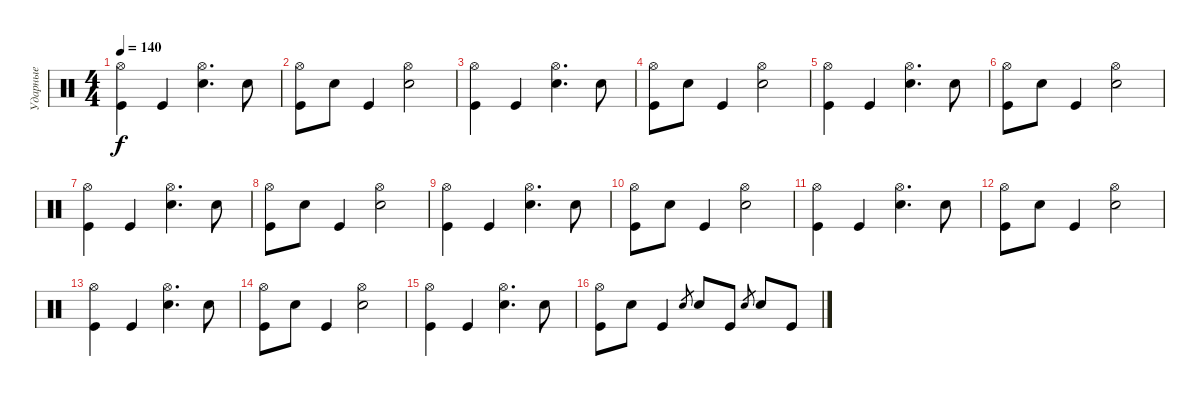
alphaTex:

\track ("Ударные" "Ударные") {instrument percussion}
\staff {score}
\articulation defaults
\ts (4 4)
\tempo 140
\clef neutral
\ks c
("Kick (hit)" "Hi-Hat (open)").4{dy f} "Kick (hit)".4 ("Snare (hit) 2" "Hi-Hat (open)").4{d} "Snare (hit) 2".8 |
("Kick (hit)" "Hi-Hat (open)").8 "Snare (hit) 2".8 "Kick (hit)".4 ("Hi-Hat (open)" "Snare (hit) 2").2 |
("Kick (hit)" "Hi-Hat (open)").4 "Kick (hit)".4 ("Snare (hit) 2" "Hi-Hat (open)").4{d} "Snare (hit) 2".8 |
("Kick (hit)" "Hi-Hat (open)").8 "Snare (hit) 2".8 "Kick (hit)".4 ("Hi-Hat (open)" "Snare (hit) 2").2 |
("Kick (hit)" "Hi-Hat (open)").4 "Kick (hit)".4 ("Snare (hit) 2" "Hi-Hat (open)").4{d} "Snare (hit) 2".8 |
("Kick (hit)" "Hi-Hat (open)").8 "Snare (hit) 2".8 "Kick (hit)".4 ("Hi-Hat (open)" "Snare (hit) 2").2 |
("Kick (hit)" "Hi-Hat (open)").4 "Kick (hit)".4 ("Snare (hit) 2" "Hi-Hat (open)").4{d} "Snare (hit) 2".8 |
("Kick (hit)" "Hi-Hat (open)").8 "Snare (hit) 2".8 "Kick (hit)".4 ("Hi-Hat (open)" "Snare (hit) 2").2 |
("Kick (hit)" "Hi-Hat (open)").4 "Kick (hit)".4 ("Snare (hit) 2" "Hi-Hat (open)").4{d} "Snare (hit) 2".8 |
("Kick (hit)" "Hi-Hat (open)").8 "Snare (hit) 2".8 "Kick (hit)".4 ("Hi-Hat (open)" "Snare (hit) 2").2 |
("Kick (hit)" "Hi-Hat (open)").4 "Kick (hit)".4 ("Snare (hit) 2" "Hi-Hat (open)").4{d} "Snare (hit) 2".8 |
("Kick (hit)" "Hi-Hat (open)").8 "Snare (hit) 2".8 "Kick (hit)".4 ("Hi-Hat (open)" "Snare (hit) 2").2 |
("Kick (hit)" "Hi-Hat (open)").4 "Kick (hit)".4 ("Snare (hit) 2" "Hi-Hat (open)").4{d} "Snare (hit) 2".8 |
("Kick (hit)" "Hi-Hat (open)").8 "Snare (hit) 2".8 "Kick (hit)".4 ("Hi-Hat (open)" "Snare (hit) 2").2 |
("Kick (hit)" "Hi-Hat (open)").4 "Kick (hit)".4 ("Snare (hit) 2" "Hi-Hat (open)").4{d} "Snare (hit) 2".8 |
("Kick (hit)" "Hi-Hat (open)").8 "Snare (hit) 2".8 "Kick (hit)".4 "Snare (hit) 2".8{gr} "Snare (hit) 2".8 "Kick (hit)".8 "Snare (hit) 2".8{gr} "Snare (hit) 2".8 "Kick (hit)".8
